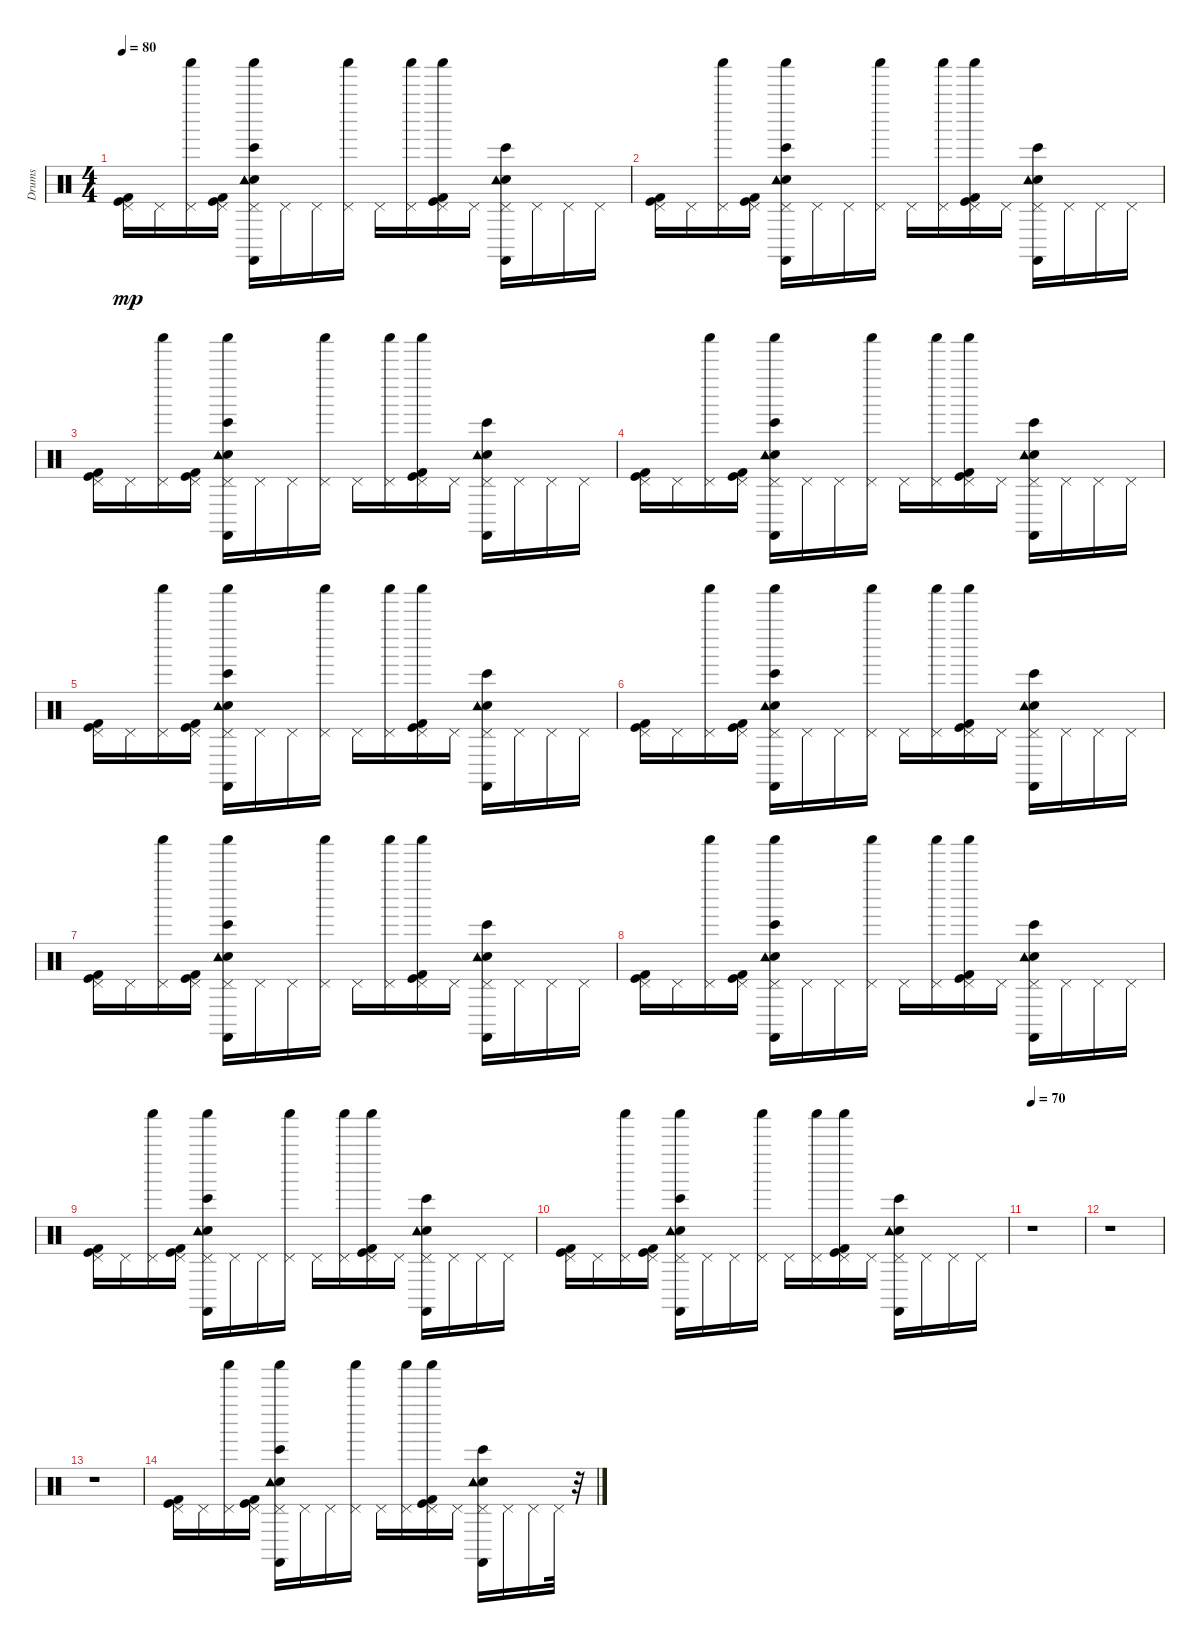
\track ("Drums" "Drums") {instrument percussion}
\staff {score}
\articulation defaults
\ts (4 4)
\tempo 80
\clef neutral
\ks c
("Kick (hit)" "Kick (hit) 2" "Pedal Hi-Hat (hit)").16{dy mp} "Pedal Hi-Hat (hit)".16 ("Shaker (hit)" "Pedal Hi-Hat (hit)").16 ("Kick (hit)" "Kick (hit) 2" "Pedal Hi-Hat (hit)").16 ("Castanets (hit)" "Hand Clap (hit)" "Shaker (hit)" "Tambourine (hit)" "Bongo High (hit)" "Pedal Hi-Hat (hit)").16 "Pedal Hi-Hat (hit)".16 "Pedal Hi-Hat (hit)".16 ("Shaker (hit)" "Pedal Hi-Hat (hit)").16 "Pedal Hi-Hat (hit)".16 ("Shaker (hit)" "Pedal Hi-Hat (hit)").16 ("Kick (hit)" "Kick (hit) 2" "Shaker (hit)" "Pedal Hi-Hat (hit)").16 "Pedal Hi-Hat (hit)".16 ("Castanets (hit)" "Hand Clap (hit)" "Tambourine (hit)" "Bongo High (hit)" "Pedal Hi-Hat (hit)").16 "Pedal Hi-Hat (hit)".16 "Pedal Hi-Hat (hit)".16 "Pedal Hi-Hat (hit)".16 |
("Kick (hit)" "Kick (hit) 2" "Pedal Hi-Hat (hit)").16 "Pedal Hi-Hat (hit)".16 ("Shaker (hit)" "Pedal Hi-Hat (hit)").16 ("Kick (hit)" "Kick (hit) 2" "Pedal Hi-Hat (hit)").16 ("Castanets (hit)" "Hand Clap (hit)" "Shaker (hit)" "Tambourine (hit)" "Bongo High (hit)" "Pedal Hi-Hat (hit)").16 "Pedal Hi-Hat (hit)".16 "Pedal Hi-Hat (hit)".16 ("Shaker (hit)" "Pedal Hi-Hat (hit)").16 "Pedal Hi-Hat (hit)".16 ("Shaker (hit)" "Pedal Hi-Hat (hit)").16 ("Kick (hit)" "Kick (hit) 2" "Shaker (hit)" "Pedal Hi-Hat (hit)").16 "Pedal Hi-Hat (hit)".16 ("Castanets (hit)" "Hand Clap (hit)" "Tambourine (hit)" "Bongo High (hit)" "Pedal Hi-Hat (hit)").16 "Pedal Hi-Hat (hit)".16 "Pedal Hi-Hat (hit)".16 "Pedal Hi-Hat (hit)".16 |
("Kick (hit)" "Kick (hit) 2" "Pedal Hi-Hat (hit)").16 "Pedal Hi-Hat (hit)".16 ("Shaker (hit)" "Pedal Hi-Hat (hit)").16 ("Kick (hit)" "Kick (hit) 2" "Pedal Hi-Hat (hit)").16 ("Castanets (hit)" "Hand Clap (hit)" "Shaker (hit)" "Tambourine (hit)" "Bongo High (hit)" "Pedal Hi-Hat (hit)").16 "Pedal Hi-Hat (hit)".16 "Pedal Hi-Hat (hit)".16 ("Shaker (hit)" "Pedal Hi-Hat (hit)").16 "Pedal Hi-Hat (hit)".16 ("Shaker (hit)" "Pedal Hi-Hat (hit)").16 ("Kick (hit)" "Kick (hit) 2" "Shaker (hit)" "Pedal Hi-Hat (hit)").16 "Pedal Hi-Hat (hit)".16 ("Castanets (hit)" "Hand Clap (hit)" "Tambourine (hit)" "Bongo High (hit)" "Pedal Hi-Hat (hit)").16 "Pedal Hi-Hat (hit)".16 "Pedal Hi-Hat (hit)".16 "Pedal Hi-Hat (hit)".16 |
("Kick (hit)" "Kick (hit) 2" "Pedal Hi-Hat (hit)").16 "Pedal Hi-Hat (hit)".16 ("Shaker (hit)" "Pedal Hi-Hat (hit)").16 ("Kick (hit)" "Kick (hit) 2" "Pedal Hi-Hat (hit)").16 ("Castanets (hit)" "Hand Clap (hit)" "Shaker (hit)" "Tambourine (hit)" "Bongo High (hit)" "Pedal Hi-Hat (hit)").16 "Pedal Hi-Hat (hit)".16 "Pedal Hi-Hat (hit)".16 ("Shaker (hit)" "Pedal Hi-Hat (hit)").16 "Pedal Hi-Hat (hit)".16 ("Shaker (hit)" "Pedal Hi-Hat (hit)").16 ("Kick (hit)" "Kick (hit) 2" "Shaker (hit)" "Pedal Hi-Hat (hit)").16 "Pedal Hi-Hat (hit)".16 ("Castanets (hit)" "Hand Clap (hit)" "Tambourine (hit)" "Bongo High (hit)" "Pedal Hi-Hat (hit)").16 "Pedal Hi-Hat (hit)".16 "Pedal Hi-Hat (hit)".16 "Pedal Hi-Hat (hit)".16 |
("Kick (hit)" "Kick (hit) 2" "Pedal Hi-Hat (hit)").16 "Pedal Hi-Hat (hit)".16 ("Shaker (hit)" "Pedal Hi-Hat (hit)").16 ("Kick (hit)" "Kick (hit) 2" "Pedal Hi-Hat (hit)").16 ("Castanets (hit)" "Hand Clap (hit)" "Shaker (hit)" "Tambourine (hit)" "Bongo High (hit)" "Pedal Hi-Hat (hit)").16 "Pedal Hi-Hat (hit)".16 "Pedal Hi-Hat (hit)".16 ("Shaker (hit)" "Pedal Hi-Hat (hit)").16 "Pedal Hi-Hat (hit)".16 ("Shaker (hit)" "Pedal Hi-Hat (hit)").16 ("Kick (hit)" "Kick (hit) 2" "Shaker (hit)" "Pedal Hi-Hat (hit)").16 "Pedal Hi-Hat (hit)".16 ("Castanets (hit)" "Hand Clap (hit)" "Tambourine (hit)" "Bongo High (hit)" "Pedal Hi-Hat (hit)").16 "Pedal Hi-Hat (hit)".16 "Pedal Hi-Hat (hit)".16 "Pedal Hi-Hat (hit)".16 |
("Kick (hit)" "Kick (hit) 2" "Pedal Hi-Hat (hit)").16 "Pedal Hi-Hat (hit)".16 ("Shaker (hit)" "Pedal Hi-Hat (hit)").16 ("Kick (hit)" "Kick (hit) 2" "Pedal Hi-Hat (hit)").16 ("Castanets (hit)" "Hand Clap (hit)" "Shaker (hit)" "Tambourine (hit)" "Bongo High (hit)" "Pedal Hi-Hat (hit)").16 "Pedal Hi-Hat (hit)".16 "Pedal Hi-Hat (hit)".16 ("Shaker (hit)" "Pedal Hi-Hat (hit)").16 "Pedal Hi-Hat (hit)".16 ("Shaker (hit)" "Pedal Hi-Hat (hit)").16 ("Kick (hit)" "Kick (hit) 2" "Shaker (hit)" "Pedal Hi-Hat (hit)").16 "Pedal Hi-Hat (hit)".16 ("Castanets (hit)" "Hand Clap (hit)" "Tambourine (hit)" "Bongo High (hit)" "Pedal Hi-Hat (hit)").16 "Pedal Hi-Hat (hit)".16 "Pedal Hi-Hat (hit)".16 "Pedal Hi-Hat (hit)".16 |
("Kick (hit)" "Kick (hit) 2" "Pedal Hi-Hat (hit)").16 "Pedal Hi-Hat (hit)".16 ("Shaker (hit)" "Pedal Hi-Hat (hit)").16 ("Kick (hit)" "Kick (hit) 2" "Pedal Hi-Hat (hit)").16 ("Castanets (hit)" "Hand Clap (hit)" "Shaker (hit)" "Tambourine (hit)" "Bongo High (hit)" "Pedal Hi-Hat (hit)").16 "Pedal Hi-Hat (hit)".16 "Pedal Hi-Hat (hit)".16 ("Shaker (hit)" "Pedal Hi-Hat (hit)").16 "Pedal Hi-Hat (hit)".16 ("Shaker (hit)" "Pedal Hi-Hat (hit)").16 ("Kick (hit)" "Kick (hit) 2" "Shaker (hit)" "Pedal Hi-Hat (hit)").16 "Pedal Hi-Hat (hit)".16 ("Castanets (hit)" "Hand Clap (hit)" "Tambourine (hit)" "Bongo High (hit)" "Pedal Hi-Hat (hit)").16 "Pedal Hi-Hat (hit)".16 "Pedal Hi-Hat (hit)".16 "Pedal Hi-Hat (hit)".16 |
("Kick (hit)" "Kick (hit) 2" "Pedal Hi-Hat (hit)").16 "Pedal Hi-Hat (hit)".16 ("Shaker (hit)" "Pedal Hi-Hat (hit)").16 ("Kick (hit)" "Kick (hit) 2" "Pedal Hi-Hat (hit)").16 ("Castanets (hit)" "Hand Clap (hit)" "Shaker (hit)" "Tambourine (hit)" "Bongo High (hit)" "Pedal Hi-Hat (hit)").16 "Pedal Hi-Hat (hit)".16 "Pedal Hi-Hat (hit)".16 ("Shaker (hit)" "Pedal Hi-Hat (hit)").16 "Pedal Hi-Hat (hit)".16 ("Shaker (hit)" "Pedal Hi-Hat (hit)").16 ("Kick (hit)" "Kick (hit) 2" "Shaker (hit)" "Pedal Hi-Hat (hit)").16 "Pedal Hi-Hat (hit)".16 ("Castanets (hit)" "Hand Clap (hit)" "Tambourine (hit)" "Bongo High (hit)" "Pedal Hi-Hat (hit)").16 "Pedal Hi-Hat (hit)".16 "Pedal Hi-Hat (hit)".16 "Pedal Hi-Hat (hit)".16 |
("Kick (hit)" "Kick (hit) 2" "Pedal Hi-Hat (hit)").16 "Pedal Hi-Hat (hit)".16 ("Shaker (hit)" "Pedal Hi-Hat (hit)").16 ("Kick (hit)" "Kick (hit) 2" "Pedal Hi-Hat (hit)").16 ("Castanets (hit)" "Hand Clap (hit)" "Shaker (hit)" "Tambourine (hit)" "Bongo High (hit)" "Pedal Hi-Hat (hit)").16 "Pedal Hi-Hat (hit)".16 "Pedal Hi-Hat (hit)".16 ("Shaker (hit)" "Pedal Hi-Hat (hit)").16 "Pedal Hi-Hat (hit)".16 ("Shaker (hit)" "Pedal Hi-Hat (hit)").16 ("Kick (hit)" "Kick (hit) 2" "Shaker (hit)" "Pedal Hi-Hat (hit)").16 "Pedal Hi-Hat (hit)".16 ("Castanets (hit)" "Hand Clap (hit)" "Tambourine (hit)" "Bongo High (hit)" "Pedal Hi-Hat (hit)").16 "Pedal Hi-Hat (hit)".16 "Pedal Hi-Hat (hit)".16 "Pedal Hi-Hat (hit)".16 |
("Kick (hit)" "Kick (hit) 2" "Pedal Hi-Hat (hit)").16 "Pedal Hi-Hat (hit)".16 ("Shaker (hit)" "Pedal Hi-Hat (hit)").16 ("Kick (hit)" "Kick (hit) 2" "Pedal Hi-Hat (hit)").16 ("Castanets (hit)" "Hand Clap (hit)" "Shaker (hit)" "Tambourine (hit)" "Bongo High (hit)" "Pedal Hi-Hat (hit)").16 "Pedal Hi-Hat (hit)".16 "Pedal Hi-Hat (hit)".16 ("Shaker (hit)" "Pedal Hi-Hat (hit)").16 "Pedal Hi-Hat (hit)".16 ("Shaker (hit)" "Pedal Hi-Hat (hit)").16 ("Kick (hit)" "Kick (hit) 2" "Shaker (hit)" "Pedal Hi-Hat (hit)").16 "Pedal Hi-Hat (hit)".16 ("Castanets (hit)" "Hand Clap (hit)" "Tambourine (hit)" "Bongo High (hit)" "Pedal Hi-Hat (hit)").16 "Pedal Hi-Hat (hit)".16 "Pedal Hi-Hat (hit)".16 "Pedal Hi-Hat (hit)".16 |
\tempo 70
r.1 |
r.1 |
r.1 |
("Kick (hit)" "Kick (hit) 2" "Pedal Hi-Hat (hit)").16 "Pedal Hi-Hat (hit)".16 ("Shaker (hit)" "Pedal Hi-Hat (hit)").16 ("Kick (hit)" "Kick (hit) 2" "Pedal Hi-Hat (hit)").16 ("Castanets (hit)" "Hand Clap (hit)" "Shaker (hit)" "Tambourine (hit)" "Bongo High (hit)" "Pedal Hi-Hat (hit)").16 "Pedal Hi-Hat (hit)".16 "Pedal Hi-Hat (hit)".16 ("Shaker (hit)" "Pedal Hi-Hat (hit)").16 "Pedal Hi-Hat (hit)".16 ("Shaker (hit)" "Pedal Hi-Hat (hit)").16 ("Kick (hit)" "Kick (hit) 2" "Shaker (hit)" "Pedal Hi-Hat (hit)").16 "Pedal Hi-Hat (hit)".16 ("Castanets (hit)" "Hand Clap (hit)" "Tambourine (hit)" "Bongo High (hit)" "Pedal Hi-Hat (hit)").16 "Pedal Hi-Hat (hit)".16 "Pedal Hi-Hat (hit)".16 "Pedal Hi-Hat (hit)".32 r.32
